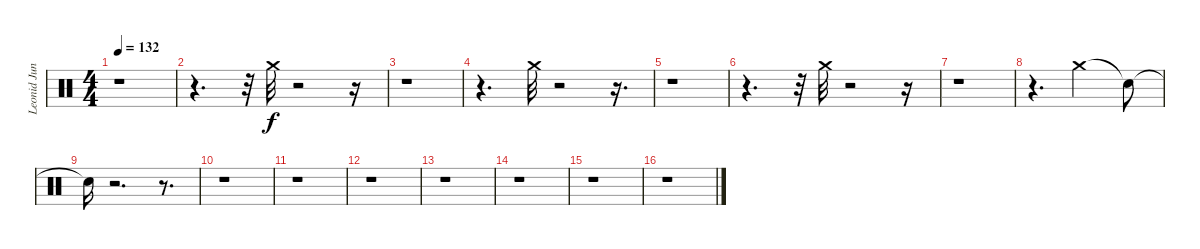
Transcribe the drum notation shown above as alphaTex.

\track ("Leonid Jung" "Leonid Jun") {instrument percussion}
\staff {score}
\articulation defaults
\ts (4 4)
\tempo 132
\clef neutral
\ks c
r.1{dy f} |
r.4{d} r.32 "Crash medium (hit)".32 r.2 r.16 |
r.1 |
r.4{d} "Crash medium (hit)".32 r.2 r.16{d} |
r.1 |
r.4{d} r.32 "Crash medium (hit)".32 r.2 r.16 |
r.1 |
r.4{d} "Crash medium (hit)".2 "Snare (hit)"{t}.8 |
"Snare (hit)"{t}.16 r.2{d} r.8{d} |
r.1 |
r.1 |
r.1 |
r.1 |
r.1 |
r.1 |
r.1
